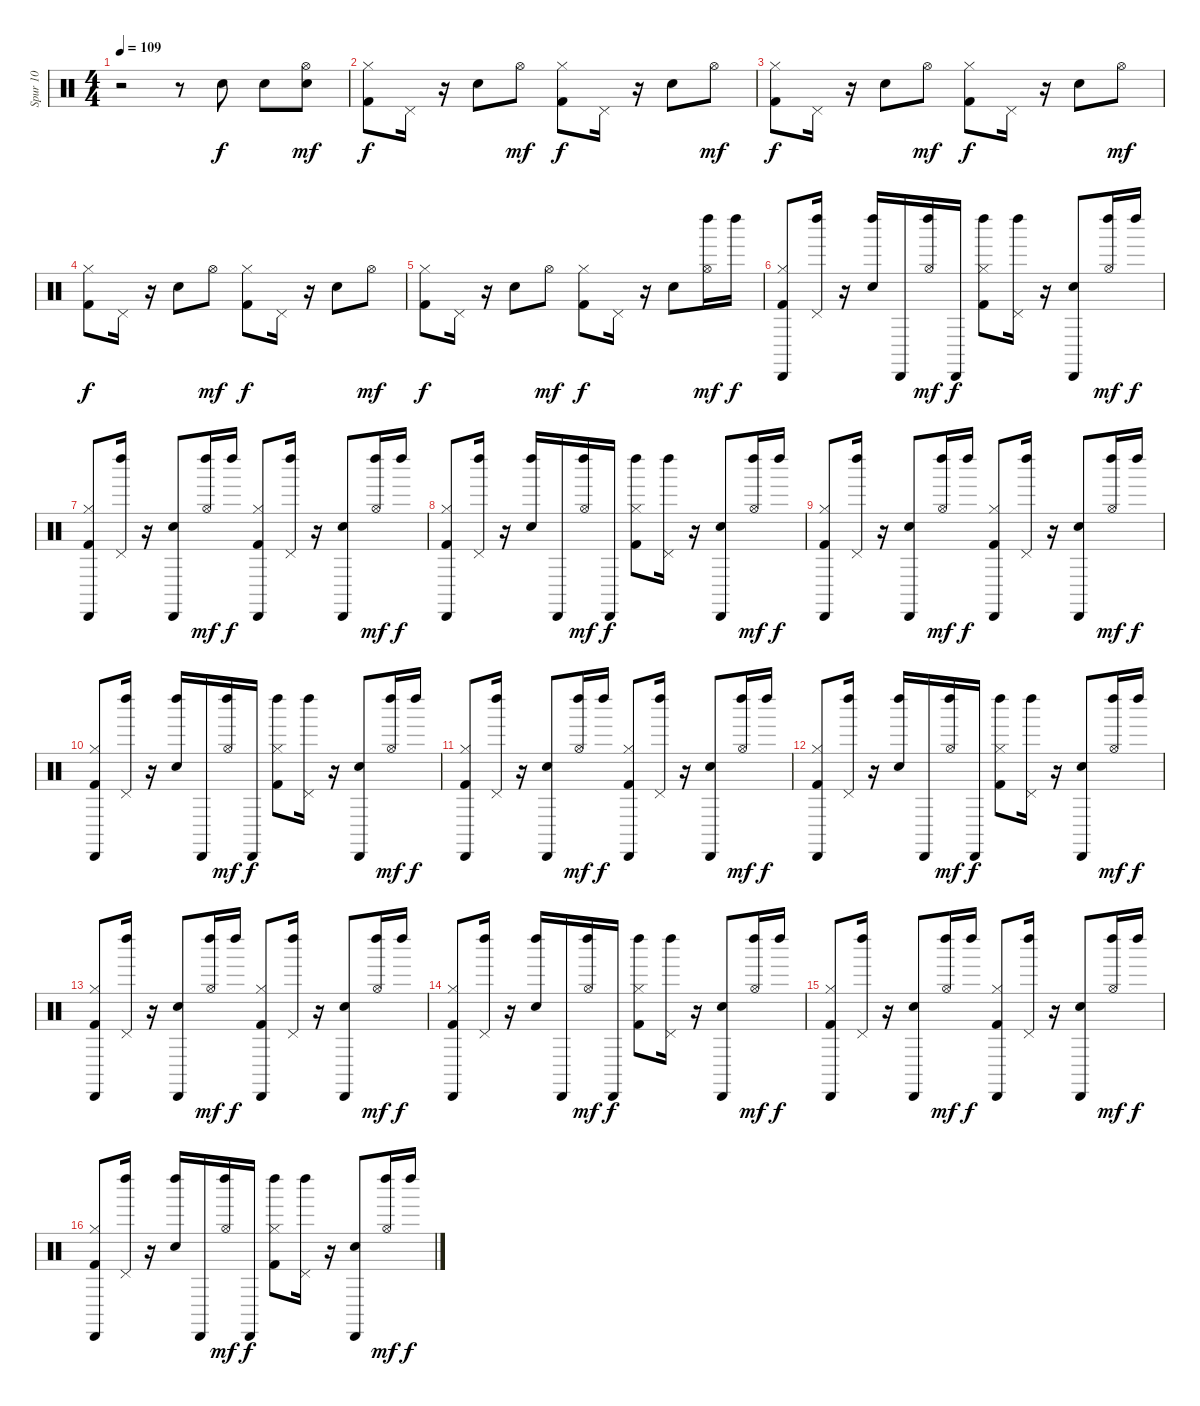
\track ("Spur 10" "Spur 10") {instrument percussion}
\staff {score}
\articulation defaults
\ts (4 4)
\tempo 109
\clef neutral
\ks c
r.2{dy f} r.8 "Snare (hit) 2".8 "Snare (hit) 2".8 ("Snare (hit) 2" "Hi-Hat (open)").8{dy mf} |
("Kick (hit) 2" "Hi-Hat (closed)").8{dy f} "Pedal Hi-Hat (hit)".16 r.16 "Snare (hit) 2".8 "Hi-Hat (open)".8{dy mf} ("Kick (hit) 2" "Hi-Hat (closed)").8{dy f} "Pedal Hi-Hat (hit)".16 r.16 "Snare (hit) 2".8 "Hi-Hat (open)".8{dy mf} |
("Kick (hit) 2" "Hi-Hat (closed)").8{dy f} "Pedal Hi-Hat (hit)".16 r.16 "Snare (hit) 2".8 "Hi-Hat (open)".8{dy mf} ("Kick (hit) 2" "Hi-Hat (closed)").8{dy f} "Pedal Hi-Hat (hit)".16 r.16 "Snare (hit) 2".8 "Hi-Hat (open)".8{dy mf} |
("Kick (hit) 2" "Hi-Hat (closed)").8{dy f} "Pedal Hi-Hat (hit)".16 r.16 "Snare (hit) 2".8 "Hi-Hat (open)".8{dy mf} ("Kick (hit) 2" "Hi-Hat (closed)").8{dy f} "Pedal Hi-Hat (hit)".16 r.16 "Snare (hit) 2".8 "Hi-Hat (open)".8{dy mf} |
("Kick (hit) 2" "Hi-Hat (closed)").8{dy f} "Pedal Hi-Hat (hit)".16 r.16 "Snare (hit) 2".8 "Hi-Hat (open)".8{dy mf} ("Kick (hit) 2" "Hi-Hat (closed)").8{dy f} "Pedal Hi-Hat (hit)".16 r.16 "Snare (hit) 2".8 ("Hi-Hat (open)" "Left Maraca (hit)").16{dy mf} "Left Maraca (hit)".16{dy f} |
("Kick (hit) 2" "Hi-Hat (closed)" "Cabasa (hit)").8 ("Pedal Hi-Hat (hit)" "Left Maraca (hit)").16 r.16 ("Snare (hit) 2" "Left Maraca (hit)").16 "Cabasa (hit)".16 ("Hi-Hat (open)" "Left Maraca (hit)").16{dy mf} "Cabasa (hit)".16{dy f} ("Kick (hit) 2" "Left Maraca (hit)" "Hi-Hat (closed)").8 ("Left Maraca (hit)" "Pedal Hi-Hat (hit)").16 r.16 ("Snare (hit) 2" "Cabasa (hit)").8 ("Left Maraca (hit)" "Hi-Hat (open)").16{dy mf} "Left Maraca (hit)".16{dy f} |
("Kick (hit) 2" "Hi-Hat (closed)" "Cabasa (hit)").8 ("Left Maraca (hit)" "Pedal Hi-Hat (hit)").16 r.16 ("Snare (hit) 2" "Cabasa (hit)").8 ("Left Maraca (hit)" "Hi-Hat (open)").16{dy mf} "Left Maraca (hit)".16{dy f} ("Kick (hit) 2" "Cabasa (hit)" "Hi-Hat (closed)").8 ("Pedal Hi-Hat (hit)" "Left Maraca (hit)").16 r.16 ("Snare (hit) 2" "Cabasa (hit)").8 ("Left Maraca (hit)" "Hi-Hat (open)").16{dy mf} "Left Maraca (hit)".16{dy f} |
("Kick (hit) 2" "Hi-Hat (closed)" "Cabasa (hit)").8 ("Pedal Hi-Hat (hit)" "Left Maraca (hit)").16 r.16 ("Snare (hit) 2" "Left Maraca (hit)").16 "Cabasa (hit)".16 ("Hi-Hat (open)" "Left Maraca (hit)").16{dy mf} "Cabasa (hit)".16{dy f} ("Kick (hit) 2" "Left Maraca (hit)" "Hi-Hat (closed)").8 ("Left Maraca (hit)" "Pedal Hi-Hat (hit)").16 r.16 ("Snare (hit) 2" "Cabasa (hit)").8 ("Left Maraca (hit)" "Hi-Hat (open)").16{dy mf} "Left Maraca (hit)".16{dy f} |
("Kick (hit) 2" "Hi-Hat (closed)" "Cabasa (hit)").8 ("Left Maraca (hit)" "Pedal Hi-Hat (hit)").16 r.16 ("Snare (hit) 2" "Cabasa (hit)").8 ("Left Maraca (hit)" "Hi-Hat (open)").16{dy mf} "Left Maraca (hit)".16{dy f} ("Kick (hit) 2" "Cabasa (hit)" "Hi-Hat (closed)").8 ("Pedal Hi-Hat (hit)" "Left Maraca (hit)").16 r.16 ("Snare (hit) 2" "Cabasa (hit)").8 ("Left Maraca (hit)" "Hi-Hat (open)").16{dy mf} "Left Maraca (hit)".16{dy f} |
("Kick (hit) 2" "Hi-Hat (closed)" "Cabasa (hit)").8 ("Pedal Hi-Hat (hit)" "Left Maraca (hit)").16 r.16 ("Snare (hit) 2" "Left Maraca (hit)").16 "Cabasa (hit)".16 ("Hi-Hat (open)" "Left Maraca (hit)").16{dy mf} "Cabasa (hit)".16{dy f} ("Kick (hit) 2" "Left Maraca (hit)" "Hi-Hat (closed)").8 ("Left Maraca (hit)" "Pedal Hi-Hat (hit)").16 r.16 ("Snare (hit) 2" "Cabasa (hit)").8 ("Left Maraca (hit)" "Hi-Hat (open)").16{dy mf} "Left Maraca (hit)".16{dy f} |
("Kick (hit) 2" "Hi-Hat (closed)" "Cabasa (hit)").8 ("Left Maraca (hit)" "Pedal Hi-Hat (hit)").16 r.16 ("Snare (hit) 2" "Cabasa (hit)").8 ("Left Maraca (hit)" "Hi-Hat (open)").16{dy mf} "Left Maraca (hit)".16{dy f} ("Kick (hit) 2" "Cabasa (hit)" "Hi-Hat (closed)").8 ("Pedal Hi-Hat (hit)" "Left Maraca (hit)").16 r.16 ("Snare (hit) 2" "Cabasa (hit)").8 ("Left Maraca (hit)" "Hi-Hat (open)").16{dy mf} "Left Maraca (hit)".16{dy f} |
("Kick (hit) 2" "Hi-Hat (closed)" "Cabasa (hit)").8 ("Pedal Hi-Hat (hit)" "Left Maraca (hit)").16 r.16 ("Snare (hit) 2" "Left Maraca (hit)").16 "Cabasa (hit)".16 ("Hi-Hat (open)" "Left Maraca (hit)").16{dy mf} "Cabasa (hit)".16{dy f} ("Kick (hit) 2" "Left Maraca (hit)" "Hi-Hat (closed)").8 ("Left Maraca (hit)" "Pedal Hi-Hat (hit)").16 r.16 ("Snare (hit) 2" "Cabasa (hit)").8 ("Left Maraca (hit)" "Hi-Hat (open)").16{dy mf} "Left Maraca (hit)".16{dy f} |
("Kick (hit) 2" "Hi-Hat (closed)" "Cabasa (hit)").8 ("Left Maraca (hit)" "Pedal Hi-Hat (hit)").16 r.16 ("Snare (hit) 2" "Cabasa (hit)").8 ("Left Maraca (hit)" "Hi-Hat (open)").16{dy mf} "Left Maraca (hit)".16{dy f} ("Kick (hit) 2" "Cabasa (hit)" "Hi-Hat (closed)").8 ("Pedal Hi-Hat (hit)" "Left Maraca (hit)").16 r.16 ("Snare (hit) 2" "Cabasa (hit)").8 ("Left Maraca (hit)" "Hi-Hat (open)").16{dy mf} "Left Maraca (hit)".16{dy f} |
("Kick (hit) 2" "Hi-Hat (closed)" "Cabasa (hit)").8 ("Pedal Hi-Hat (hit)" "Left Maraca (hit)").16 r.16 ("Snare (hit) 2" "Left Maraca (hit)").16 "Cabasa (hit)".16 ("Hi-Hat (open)" "Left Maraca (hit)").16{dy mf} "Cabasa (hit)".16{dy f} ("Kick (hit) 2" "Left Maraca (hit)" "Hi-Hat (closed)").8 ("Left Maraca (hit)" "Pedal Hi-Hat (hit)").16 r.16 ("Snare (hit) 2" "Cabasa (hit)").8 ("Left Maraca (hit)" "Hi-Hat (open)").16{dy mf} "Left Maraca (hit)".16{dy f} |
("Kick (hit) 2" "Hi-Hat (closed)" "Cabasa (hit)").8 ("Left Maraca (hit)" "Pedal Hi-Hat (hit)").16 r.16 ("Snare (hit) 2" "Cabasa (hit)").8 ("Left Maraca (hit)" "Hi-Hat (open)").16{dy mf} "Left Maraca (hit)".16{dy f} ("Kick (hit) 2" "Cabasa (hit)" "Hi-Hat (closed)").8 ("Pedal Hi-Hat (hit)" "Left Maraca (hit)").16 r.16 ("Snare (hit) 2" "Cabasa (hit)").8 ("Left Maraca (hit)" "Hi-Hat (open)").16{dy mf} "Left Maraca (hit)".16{dy f} |
("Kick (hit) 2" "Hi-Hat (closed)" "Cabasa (hit)").8 ("Pedal Hi-Hat (hit)" "Left Maraca (hit)").16 r.16 ("Snare (hit) 2" "Left Maraca (hit)").16 "Cabasa (hit)".16 ("Hi-Hat (open)" "Left Maraca (hit)").16{dy mf} "Cabasa (hit)".16{dy f} ("Kick (hit) 2" "Left Maraca (hit)" "Hi-Hat (closed)").8 ("Left Maraca (hit)" "Pedal Hi-Hat (hit)").16 r.16 ("Snare (hit) 2" "Cabasa (hit)").8 ("Left Maraca (hit)" "Hi-Hat (open)").16{dy mf} "Left Maraca (hit)".16{dy f}
